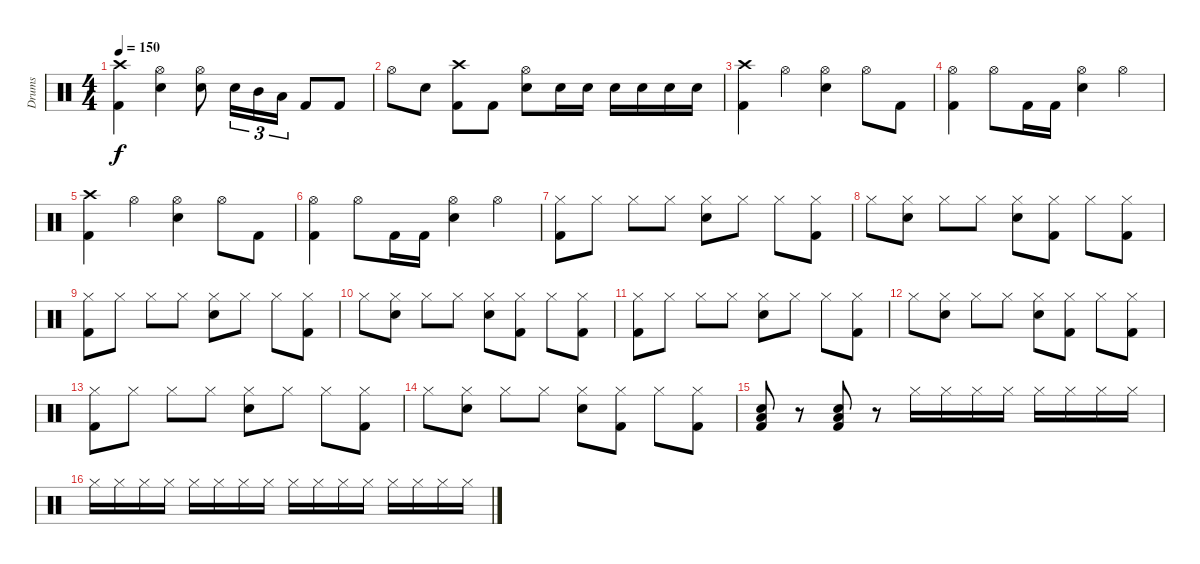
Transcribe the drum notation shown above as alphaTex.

\track ("Drums" "Drums") {instrument percussion}
\staff {score}
\articulation defaults
\ts (4 4)
\tempo 150
\clef neutral
\ks c
("Crash high (hit)" "Kick (hit) 2").4{dy f} ("Hi-Hat (open)" "Electric Snare (hit)").4 ("Hi-Hat (open)" "Electric Snare (hit)").8 "Electric Snare (hit)".16{tu (3 2)} "Mid Tom (hit)".16{tu (3 2)} "Low Tom (hit)".16{tu (3 2)} "Kick (hit) 2".8 "Kick (hit) 2".8 |
"Hi-Hat (open)".8 "Electric Snare (hit)".8 ("Crash high (hit)" "Kick (hit) 2").8 "Kick (hit) 2".8 ("Hi-Hat (open)" "Electric Snare (hit)").8 "Electric Snare (hit)".16 "Electric Snare (hit)".16 "Electric Snare (hit)".16 "Electric Snare (hit)".16 "Electric Snare (hit)".16 "Electric Snare (hit)".16 |
\section ("" "")
("Crash high (hit)" "Kick (hit) 2").4 "Hi-Hat (open)".4 ("Hi-Hat (open)" "Electric Snare (hit)").4 "Hi-Hat (open)".8 "Kick (hit) 2".8 |
("Hi-Hat (open)" "Kick (hit) 2").4 "Hi-Hat (open)".8 "Kick (hit) 2".16 "Kick (hit) 2".16 ("Hi-Hat (open)" "Electric Snare (hit)").4 "Hi-Hat (open)".4 |
("Crash high (hit)" "Kick (hit) 2").4 "Hi-Hat (open)".4 ("Hi-Hat (open)" "Electric Snare (hit)").4 "Hi-Hat (open)".8 "Kick (hit) 2".8 |
("Hi-Hat (open)" "Kick (hit) 2").4 "Hi-Hat (open)".8 "Kick (hit) 2".16 "Kick (hit) 2".16 ("Hi-Hat (open)" "Electric Snare (hit)").4 "Hi-Hat (open)".4 |
\section ("" "")
("Hi-Hat (closed)" "Kick (hit) 2").8 "Hi-Hat (closed)".8 "Hi-Hat (closed)".8 "Hi-Hat (closed)".8 ("Hi-Hat (closed)" "Electric Snare (hit)").8 "Hi-Hat (closed)".8 "Hi-Hat (closed)".8 ("Hi-Hat (closed)" "Kick (hit) 2").8 |
"Hi-Hat (closed)".8 ("Hi-Hat (closed)" "Electric Snare (hit)").8 "Hi-Hat (closed)".8 "Hi-Hat (closed)".8 ("Hi-Hat (closed)" "Electric Snare (hit)").8 ("Hi-Hat (closed)" "Kick (hit) 2").8 "Hi-Hat (closed)".8 ("Hi-Hat (closed)" "Kick (hit) 2").8 |
("Hi-Hat (closed)" "Kick (hit) 2").8 "Hi-Hat (closed)".8 "Hi-Hat (closed)".8 "Hi-Hat (closed)".8 ("Hi-Hat (closed)" "Electric Snare (hit)").8 "Hi-Hat (closed)".8 "Hi-Hat (closed)".8 ("Hi-Hat (closed)" "Kick (hit) 2").8 |
"Hi-Hat (closed)".8 ("Hi-Hat (closed)" "Electric Snare (hit)").8 "Hi-Hat (closed)".8 "Hi-Hat (closed)".8 ("Hi-Hat (closed)" "Electric Snare (hit)").8 ("Hi-Hat (closed)" "Kick (hit) 2").8 "Hi-Hat (closed)".8 ("Hi-Hat (closed)" "Kick (hit) 2").8 |
("Hi-Hat (closed)" "Kick (hit) 2").8 "Hi-Hat (closed)".8 "Hi-Hat (closed)".8 "Hi-Hat (closed)".8 ("Hi-Hat (closed)" "Electric Snare (hit)").8 "Hi-Hat (closed)".8 "Hi-Hat (closed)".8 ("Hi-Hat (closed)" "Kick (hit) 2").8 |
"Hi-Hat (closed)".8 ("Hi-Hat (closed)" "Electric Snare (hit)").8 "Hi-Hat (closed)".8 "Hi-Hat (closed)".8 ("Hi-Hat (closed)" "Electric Snare (hit)").8 ("Hi-Hat (closed)" "Kick (hit) 2").8 "Hi-Hat (closed)".8 ("Hi-Hat (closed)" "Kick (hit) 2").8 |
("Hi-Hat (closed)" "Kick (hit) 2").8 "Hi-Hat (closed)".8 "Hi-Hat (closed)".8 "Hi-Hat (closed)".8 ("Hi-Hat (closed)" "Electric Snare (hit)").8 "Hi-Hat (closed)".8 "Hi-Hat (closed)".8 ("Hi-Hat (closed)" "Kick (hit) 2").8 |
"Hi-Hat (closed)".8 ("Hi-Hat (closed)" "Electric Snare (hit)").8 "Hi-Hat (closed)".8 "Hi-Hat (closed)".8 ("Hi-Hat (closed)" "Electric Snare (hit)").8 ("Hi-Hat (closed)" "Kick (hit) 2").8 "Hi-Hat (closed)".8 ("Hi-Hat (closed)" "Kick (hit) 2").8 |
("Electric Snare (hit)" "Low Floor Tom (hit)" "Kick (hit) 2").8 r.8 ("Electric Snare (hit)" "Low Floor Tom (hit)" "Kick (hit) 2").8 r.8 "Hi-Hat (closed)".16 "Hi-Hat (closed)".16 "Hi-Hat (closed)".16 "Hi-Hat (closed)".16 "Hi-Hat (closed)".16 "Hi-Hat (closed)".16 "Hi-Hat (closed)".16 "Hi-Hat (closed)".16 |
"Hi-Hat (closed)".16 "Hi-Hat (closed)".16 "Hi-Hat (closed)".16 "Hi-Hat (closed)".16 "Hi-Hat (closed)".16 "Hi-Hat (closed)".16 "Hi-Hat (closed)".16 "Hi-Hat (closed)".16 "Hi-Hat (closed)".16 "Hi-Hat (closed)".16 "Hi-Hat (closed)".16 "Hi-Hat (closed)".16 "Hi-Hat (closed)".16 "Hi-Hat (closed)".16 "Hi-Hat (closed)".16 "Hi-Hat (closed)".16
